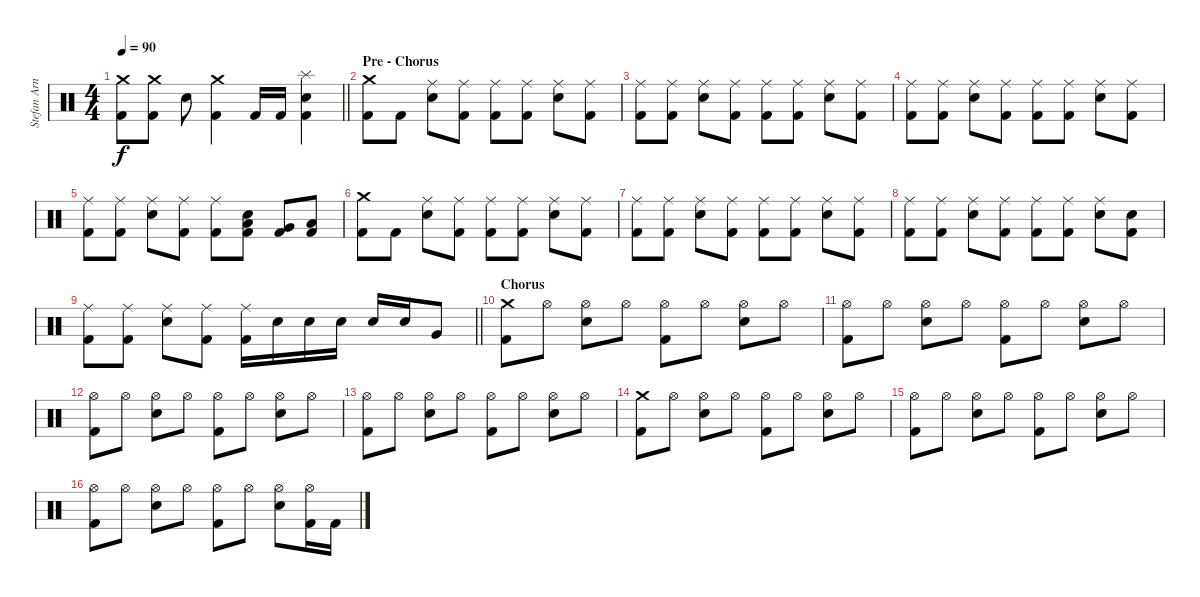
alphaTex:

\track ("Stefan Arnold" "Stefan Arn") {instrument percussion}
\staff {score}
\articulation defaults
\ts (4 4)
\tempo 90
\clef neutral
\barLineRight lightlight
\ks c
("Crash medium (hit)" "Kick (hit) 2").8{dy f} ("Crash medium (hit)" "Kick (hit) 2").8 "Electric Snare (hit)".8 ("Crash medium (hit)" "Kick (hit) 2").4 "Kick (hit) 2".16 "Kick (hit) 2".16 ("Splash (hit)" "Electric Snare (hit)" "Kick (hit) 2").4 |
\section ("" "Pre - Chorus")
("Crash medium (hit)" "Kick (hit) 2").8 "Kick (hit) 2".8 ("Ride (middle)" "Electric Snare (hit)").8 ("Ride (middle)" "Kick (hit) 2").8 ("Ride (middle)" "Kick (hit) 2").8 ("Ride (middle)" "Kick (hit) 2").8 ("Ride (middle)" "Electric Snare (hit)").8 ("Ride (middle)" "Kick (hit) 2").8 |
("Ride (middle)" "Kick (hit) 2").8 ("Ride (middle)" "Kick (hit) 2").8 ("Ride (middle)" "Electric Snare (hit)").8 ("Ride (middle)" "Kick (hit) 2").8 ("Ride (middle)" "Kick (hit) 2").8 ("Ride (middle)" "Kick (hit) 2").8 ("Ride (middle)" "Electric Snare (hit)").8 ("Ride (middle)" "Kick (hit) 2").8 |
("Ride (middle)" "Kick (hit) 2").8 ("Ride (middle)" "Kick (hit) 2").8 ("Ride (middle)" "Electric Snare (hit)").8 ("Ride (middle)" "Kick (hit) 2").8 ("Ride (middle)" "Kick (hit) 2").8 ("Ride (middle)" "Kick (hit) 2").8 ("Ride (middle)" "Electric Snare (hit)").8 ("Ride (middle)" "Kick (hit) 2").8 |
("Ride (middle)" "Kick (hit) 2").8 ("Ride (middle)" "Kick (hit) 2").8 ("Ride (middle)" "Electric Snare (hit)").8 ("Ride (middle)" "Kick (hit) 2").8 ("Ride (middle)" "Kick (hit) 2").8 ("Electric Snare (hit)" "Low Tom (hit)" "Kick (hit) 2").8 ("Very Low Tom (hit)" "Kick (hit) 2").8 ("Low Floor Tom (hit)" "Kick (hit) 2").8 |
("Crash medium (hit)" "Kick (hit) 2").8 "Kick (hit) 2".8 ("Ride (middle)" "Electric Snare (hit)").8 ("Ride (middle)" "Kick (hit) 2").8 ("Ride (middle)" "Kick (hit) 2").8 ("Ride (middle)" "Kick (hit) 2").8 ("Ride (middle)" "Electric Snare (hit)").8 ("Ride (middle)" "Kick (hit) 2").8 |
("Ride (middle)" "Kick (hit) 2").8 ("Ride (middle)" "Kick (hit) 2").8 ("Ride (middle)" "Electric Snare (hit)").8 ("Ride (middle)" "Kick (hit) 2").8 ("Ride (middle)" "Kick (hit) 2").8 ("Ride (middle)" "Kick (hit) 2").8 ("Ride (middle)" "Electric Snare (hit)").8 ("Ride (middle)" "Kick (hit) 2").8 |
("Ride (middle)" "Kick (hit) 2").8 ("Ride (middle)" "Kick (hit) 2").8 ("Ride (middle)" "Electric Snare (hit)").8 ("Ride (middle)" "Kick (hit) 2").8 ("Ride (middle)" "Kick (hit) 2").8 ("Ride (middle)" "Kick (hit) 2").8 ("Ride (middle)" "Electric Snare (hit)").8 ("Snare (hit)" "Kick (hit) 2").8 |
\barLineRight lightlight
("Ride (middle)" "Kick (hit) 2").8 ("Ride (middle)" "Kick (hit) 2").8 ("Ride (middle)" "Electric Snare (hit)").8 ("Ride (middle)" "Kick (hit) 2").8 ("Ride (middle)" "Kick (hit) 2").16 "Electric Snare (hit)".16 "Electric Snare (hit)".16 "Electric Snare (hit)".16 "Electric Snare (hit)".16 "Electric Snare (hit)".16 "Very Low Tom (hit)".8 |
\section ("" "Chorus")
("Crash medium (hit)" "Kick (hit) 2").8 "Hi-Hat (open)".8 ("Hi-Hat (open)" "Electric Snare (hit)").8 "Hi-Hat (open)".8 ("Hi-Hat (open)" "Kick (hit) 2").8 "Hi-Hat (open)".8 ("Hi-Hat (open)" "Electric Snare (hit)").8 "Hi-Hat (open)".8 |
("Hi-Hat (open)" "Kick (hit) 2").8 "Hi-Hat (open)".8 ("Hi-Hat (open)" "Electric Snare (hit)").8 "Hi-Hat (open)".8 ("Hi-Hat (open)" "Kick (hit) 2").8 "Hi-Hat (open)".8 ("Hi-Hat (open)" "Electric Snare (hit)").8 "Hi-Hat (open)".8 |
("Hi-Hat (open)" "Kick (hit) 2").8 "Hi-Hat (open)".8 ("Hi-Hat (open)" "Electric Snare (hit)").8 "Hi-Hat (open)".8 ("Hi-Hat (open)" "Kick (hit) 2").8 "Hi-Hat (open)".8 ("Hi-Hat (open)" "Electric Snare (hit)").8 "Hi-Hat (open)".8 |
("Hi-Hat (open)" "Kick (hit) 2").8 "Hi-Hat (open)".8 ("Hi-Hat (open)" "Electric Snare (hit)").8 "Hi-Hat (open)".8 ("Hi-Hat (open)" "Kick (hit) 2").8 "Hi-Hat (open)".8 ("Hi-Hat (open)" "Electric Snare (hit)").8 "Hi-Hat (open)".8 |
("Crash medium (hit)" "Kick (hit) 2").8 "Hi-Hat (open)".8 ("Hi-Hat (open)" "Electric Snare (hit)").8 "Hi-Hat (open)".8 ("Hi-Hat (open)" "Kick (hit) 2").8 "Hi-Hat (open)".8 ("Hi-Hat (open)" "Electric Snare (hit)").8 "Hi-Hat (open)".8 |
("Hi-Hat (open)" "Kick (hit) 2").8 "Hi-Hat (open)".8 ("Hi-Hat (open)" "Electric Snare (hit)").8 "Hi-Hat (open)".8 ("Hi-Hat (open)" "Kick (hit) 2").8 "Hi-Hat (open)".8 ("Hi-Hat (open)" "Electric Snare (hit)").8 "Hi-Hat (open)".8 |
("Hi-Hat (open)" "Kick (hit) 2").8 "Hi-Hat (open)".8 ("Hi-Hat (open)" "Electric Snare (hit)").8 "Hi-Hat (open)".8 ("Hi-Hat (open)" "Kick (hit) 2").8 "Hi-Hat (open)".8 ("Hi-Hat (open)" "Electric Snare (hit)").8 ("Hi-Hat (open)" "Kick (hit) 2").16 "Kick (hit) 2".16
